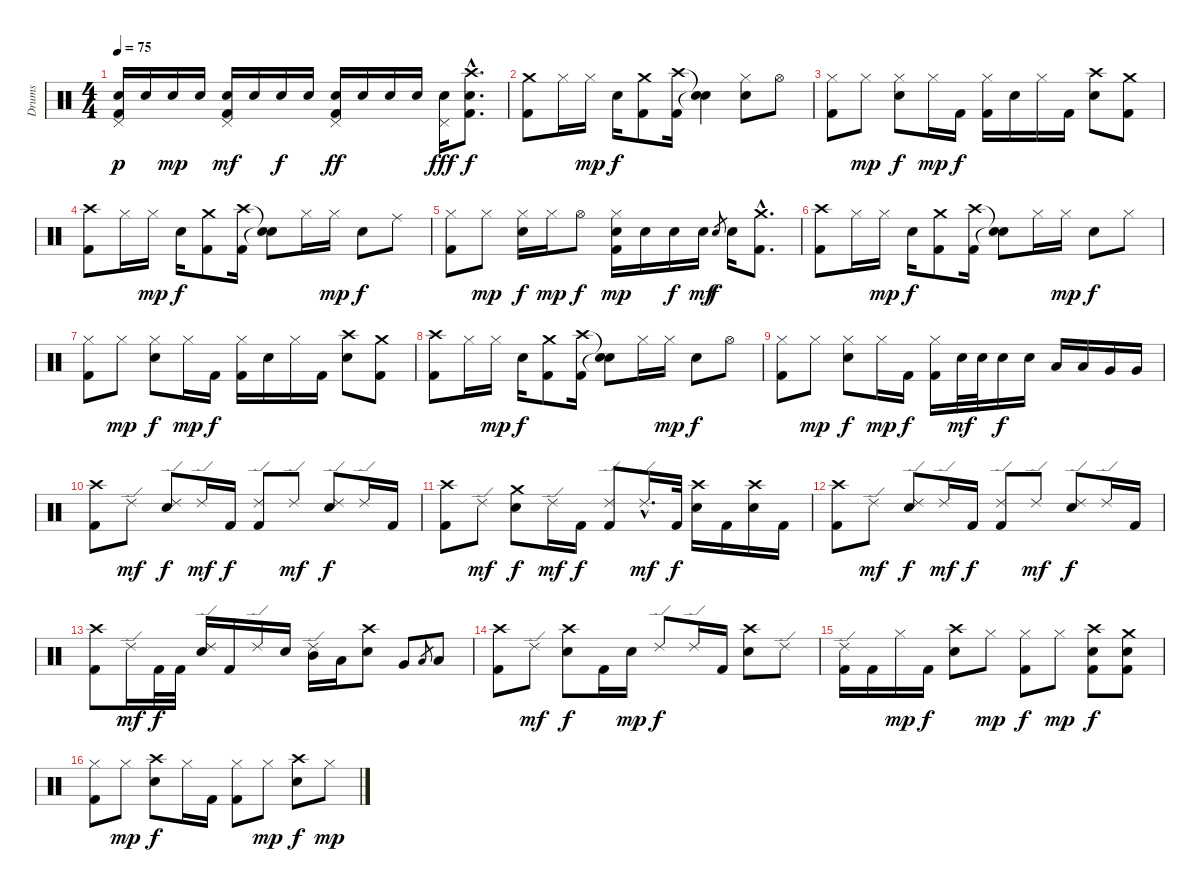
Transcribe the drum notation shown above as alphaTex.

\track ("Drums" "Drums") {instrument percussion}
\staff {score}
\articulation defaults
\ts (4 4)
\tempo 75
\clef neutral
\ks c
("Pedal Hi-Hat (hit)" "Electric Snare (hit)" "Kick (hit) 2").16{dy p} "Electric Snare (hit)".16 "Electric Snare (hit)".16{dy mp} "Electric Snare (hit)".16 ("Pedal Hi-Hat (hit)" "Electric Snare (hit)" "Kick (hit) 2").16{dy mf} "Electric Snare (hit)".16 "Electric Snare (hit)".16{dy f} "Electric Snare (hit)".16 ("Pedal Hi-Hat (hit)" "Electric Snare (hit)" "Kick (hit) 2").16{dy ff} "Electric Snare (hit)".16 "Electric Snare (hit)".16 "Electric Snare (hit)".16 ("Pedal Hi-Hat (hit)" "Electric Snare (hit)").16{dy fff} ("Crash high (hit)"{hac} "Electric Snare (hit)"{hac} "Kick (hit) 2"{hac}).8{d dy f} |
("Crash medium (hit)" "Kick (hit) 2").8 "Hi-Hat (closed)".16 "Hi-Hat (closed)".16{dy mp} "Electric Snare (hit)".16{dy f} ("Crash medium (hit)" "Kick (hit) 2").8 ("Crash high (hit)" "Kick (hit) 2").16 ("Snare (hit)"{t} "Snare (hit)"{t}).4 ("Hi-Hat (closed)" "Electric Snare (hit)").8 "Hi-Hat (open)".8 |
("Hi-Hat (closed)" "Kick (hit) 2").8 "Hi-Hat (closed)".8{dy mp} ("Hi-Hat (closed)" "Electric Snare (hit)").8{dy f} "Hi-Hat (closed)".16{dy mp} "Kick (hit) 2".16{dy f} ("Hi-Hat (closed)" "Kick (hit) 2").16 "Electric Snare (hit)".16 "Hi-Hat (closed)".16 "Kick (hit) 2".16 ("Crash high (hit)" "Electric Snare (hit)").8 ("Crash medium (hit)" "Kick (hit) 2").8 |
("Crash high (hit)" "Kick (hit) 2").8 "Hi-Hat (closed)".16 "Hi-Hat (closed)".16{dy mp} "Electric Snare (hit)".16{dy f} ("Crash medium (hit)" "Kick (hit) 2").8 ("Crash high (hit)" "Kick (hit) 2").16 ("Snare (hit)"{t} "Snare (hit)"{t}).8 "Hi-Hat (closed)".16 "Hi-Hat (closed)".16{dy mp} "Electric Snare (hit)".8{dy f} "Ride (middle)".8 |
("Hi-Hat (closed)" "Kick (hit) 2").8 "Hi-Hat (closed)".8{dy mp} ("Hi-Hat (closed)" "Electric Snare (hit)").16{dy f} "Hi-Hat (closed)".16{dy mp} "Hi-Hat (open)".8{dy f} ("Hi-Hat (closed)" "Electric Snare (hit)" "Kick (hit) 2").16{dy mp} "Electric Snare (hit)".16 "Electric Snare (hit)".16{dy f} "Electric Snare (hit)".16{dy mf} "Electric Snare (hit)".8{gr dy f} "Electric Snare (hit)".16 ("Crash medium (hit)"{hac} "Kick (hit) 2"{hac}).8{d} |
("Crash high (hit)" "Kick (hit) 2").8 "Hi-Hat (closed)".16 "Hi-Hat (closed)".16{dy mp} "Electric Snare (hit)".16{dy f} ("Crash medium (hit)" "Kick (hit) 2").8 ("Crash high (hit)" "Kick (hit) 2").16 ("Snare (hit)"{t} "Snare (hit)"{t}).8 "Hi-Hat (closed)".16 "Hi-Hat (closed)".16{dy mp} "Electric Snare (hit)".8{dy f} "Hi-Hat (closed)".8 |
("Hi-Hat (closed)" "Kick (hit) 2").8 "Hi-Hat (closed)".8{dy mp} ("Hi-Hat (closed)" "Electric Snare (hit)").8{dy f} "Hi-Hat (closed)".16{dy mp} "Kick (hit) 2".16{dy f} ("Hi-Hat (closed)" "Kick (hit) 2").16 "Electric Snare (hit)".16 "Hi-Hat (closed)".16 "Kick (hit) 2".16 ("Crash high (hit)" "Electric Snare (hit)").8 ("Crash medium (hit)" "Kick (hit) 2").8 |
("Crash high (hit)" "Kick (hit) 2").8 "Hi-Hat (closed)".16 "Hi-Hat (closed)".16{dy mp} "Electric Snare (hit)".16{dy f} ("Crash medium (hit)" "Kick (hit) 2").8 ("Crash high (hit)" "Kick (hit) 2").16 ("Snare (hit)"{t} "Snare (hit)"{t}).8 "Hi-Hat (closed)".16 "Hi-Hat (closed)".16{dy mp} "Electric Snare (hit)".8{dy f} "Hi-Hat (open)".8 |
("Hi-Hat (closed)" "Kick (hit) 2").8 "Hi-Hat (closed)".8{dy mp} ("Hi-Hat (closed)" "Electric Snare (hit)").8{dy f} "Hi-Hat (closed)".16{dy mp} "Kick (hit) 2".16{dy f} ("Hi-Hat (closed)" "Kick (hit) 2").16 "Electric Snare (hit)".32{dy mf} "Electric Snare (hit)".32 "Electric Snare (hit)".16{dy f} "Electric Snare (hit)".16 "Low Tom (hit)".16 "Low Tom (hit)".16 "Very Low Tom (hit)".16 "Very Low Tom (hit)".16 |
("Crash high (hit)" "Kick (hit) 2").8 "Ride (edge) 2".8{dy mf} ("Ride (edge) 2" "Electric Snare (hit)").8{dy f} "Ride (edge) 2".16{dy mf} "Kick (hit) 2".16{dy f} ("Ride (edge) 2" "Kick (hit) 2").8 "Ride (edge) 2".8{dy mf} ("Ride (edge) 2" "Electric Snare (hit)").8{dy f} "Ride (edge) 2".16 "Kick (hit) 2".16 |
("Crash high (hit)" "Kick (hit) 2").8 "Ride (edge) 2".8{dy mf} ("Crash medium (hit)" "Electric Snare (hit)").8{dy f} "Ride (edge) 2".16{dy mf} "Kick (hit) 2".16{dy f} ("Ride (edge) 2" "Kick (hit) 2").8 "Ride (edge) 2"{hac}.16{d dy mf} "Kick (hit) 2".32{dy f} ("Crash high (hit)" "Electric Snare (hit)").16 "Kick (hit) 2".16 ("Crash high (hit)" "Electric Snare (hit)").16 "Kick (hit) 2".16 |
("Crash high (hit)" "Kick (hit) 2").8 "Ride (edge) 2".8{dy mf} ("Ride (edge) 2" "Electric Snare (hit)").8{dy f} "Ride (edge) 2".16{dy mf} "Kick (hit) 2".16{dy f} ("Ride (edge) 2" "Kick (hit) 2").8 "Ride (edge) 2".8{dy mf} ("Ride (edge) 2" "Electric Snare (hit)").8{dy f} "Ride (edge) 2".16 "Kick (hit) 2".16 |
("Crash high (hit)" "Kick (hit) 2").8 "Ride (edge) 2".16{dy mf} "Kick (hit) 2".32{dy f} "Kick (hit) 2".32 ("Ride (edge) 2" "Electric Snare (hit)").16 "Kick (hit) 2".16 "Ride (edge) 2".16 "Electric Snare (hit)".16 ("Ride (edge) 2" "Mid Tom (hit)").16 "Low Tom (hit)".16 ("Crash high (hit)" "Electric Snare (hit)").8 "Very Low Tom (hit)".8 "Low Tom (hit)".8{gr} "Low Tom (hit)".8 |
("Crash high (hit)" "Kick (hit) 2").8 "Ride (edge) 2".8{dy mf} ("Crash high (hit)" "Electric Snare (hit)").8{dy f} "Kick (hit) 2".16 "Electric Snare (hit)"{tr (40 32)}.16{dy mp} "Ride (edge) 2".8{dy f} "Ride (edge) 2".16 "Kick (hit) 2".16 ("Crash high (hit)" "Electric Snare (hit)").8 "Ride (edge) 2".8 |
("Ride (edge) 2" "Kick (hit) 2").16 "Kick (hit) 2".16 "Hi-Hat (closed)".16{dy mp} "Kick (hit) 2".16{dy f} ("Crash high (hit)" "Electric Snare (hit)").8 "Hi-Hat (closed)".8{dy mp} ("Hi-Hat (closed)" "Kick (hit) 2").8{dy f} "Hi-Hat (closed)".8{dy mp} ("Crash high (hit)" "Kick (hit) 2" "Electric Snare (hit)").8{dy f} ("Crash medium (hit)" "Kick (hit) 2" "Electric Snare (hit)").8 |
("Hi-Hat (closed)" "Kick (hit) 2").8 "Hi-Hat (closed)".8{dy mp} ("Crash high (hit)" "Electric Snare (hit)").8{dy f} "Hi-Hat (closed)".16 "Kick (hit) 2".16 ("Hi-Hat (closed)" "Kick (hit) 2").8 "Hi-Hat (closed)".8{dy mp} ("Crash high (hit)" "Electric Snare (hit)").8{dy f} "Hi-Hat (closed)".8{dy mp}
